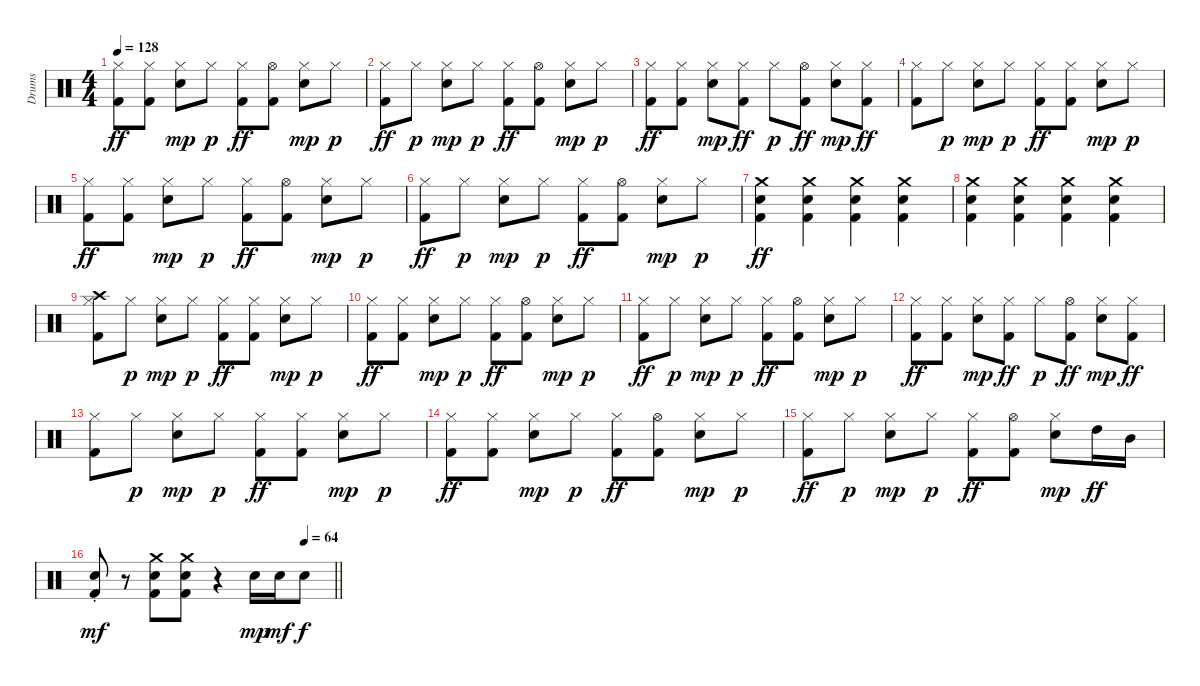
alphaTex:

\track ("Drums" "Drums") {instrument percussion}
\staff {score}
\articulation defaults
\ts (4 4)
\tempo 128
\clef neutral
\ks c
("Hi-Hat (closed)" "Kick (hit) 2").8{dy ff} ("Hi-Hat (closed)" "Kick (hit) 2").8 ("Hi-Hat (closed)" "Snare (hit) 2").8{dy mp} "Hi-Hat (closed)".8{dy p} ("Hi-Hat (closed)" "Kick (hit) 2").8{dy ff} ("Hi-Hat (open)" "Kick (hit) 2").8 ("Hi-Hat (closed)" "Snare (hit) 2").8{dy mp} "Hi-Hat (closed)".8{dy p} |
("Hi-Hat (closed)" "Kick (hit) 2").8{dy ff} "Hi-Hat (closed)".8{dy p} ("Hi-Hat (closed)" "Snare (hit) 2").8{dy mp} "Hi-Hat (closed)".8{dy p} ("Hi-Hat (closed)" "Kick (hit) 2").8{dy ff} ("Hi-Hat (open)" "Kick (hit) 2").8 ("Hi-Hat (closed)" "Snare (hit) 2").8{dy mp} "Hi-Hat (closed)".8{dy p} |
("Hi-Hat (closed)" "Kick (hit) 2").8{dy ff} ("Hi-Hat (closed)" "Kick (hit) 2").8 ("Hi-Hat (closed)" "Snare (hit) 2").8{dy mp} ("Hi-Hat (closed)" "Kick (hit) 2").8{dy ff} "Hi-Hat (closed)".8{dy p} ("Hi-Hat (open)" "Kick (hit) 2").8{dy ff} ("Hi-Hat (closed)" "Snare (hit) 2").8{dy mp} ("Hi-Hat (closed)" "Kick (hit) 2").8{dy ff} |
("Hi-Hat (closed)" "Kick (hit) 2").8 "Hi-Hat (closed)".8{dy p} ("Hi-Hat (closed)" "Snare (hit) 2").8{dy mp} "Hi-Hat (closed)".8{dy p} ("Hi-Hat (closed)" "Kick (hit) 2").8{dy ff} ("Hi-Hat (closed)" "Kick (hit) 2").8 ("Hi-Hat (closed)" "Snare (hit) 2").8{dy mp} "Hi-Hat (closed)".8{dy p} |
("Hi-Hat (closed)" "Kick (hit) 2").8{dy ff} ("Hi-Hat (closed)" "Kick (hit) 2").8 ("Hi-Hat (closed)" "Snare (hit) 2").8{dy mp} "Hi-Hat (closed)".8{dy p} ("Hi-Hat (closed)" "Kick (hit) 2").8{dy ff} ("Hi-Hat (open)" "Kick (hit) 2").8 ("Hi-Hat (closed)" "Snare (hit) 2").8{dy mp} "Hi-Hat (closed)".8{dy p} |
("Hi-Hat (closed)" "Kick (hit) 2").8{dy ff} "Hi-Hat (closed)".8{dy p} ("Hi-Hat (closed)" "Snare (hit) 2").8{dy mp} "Hi-Hat (closed)".8{dy p} ("Hi-Hat (closed)" "Kick (hit) 2").8{dy ff} ("Hi-Hat (open)" "Kick (hit) 2").8 ("Hi-Hat (closed)" "Snare (hit) 2").8{dy mp} "Hi-Hat (closed)".8{dy p} |
("Crash medium (hit)" "Snare (hit) 2" "Kick (hit) 2").4{dy ff} ("Crash medium (hit)" "Snare (hit) 2" "Kick (hit) 2").4 ("Crash medium (hit)" "Snare (hit) 2" "Kick (hit) 2").4 ("Crash medium (hit)" "Snare (hit) 2" "Kick (hit) 2").4 |
("Crash medium (hit)" "Snare (hit) 2" "Kick (hit) 2").4 ("Crash medium (hit)" "Snare (hit) 2" "Kick (hit) 2").4 ("Crash medium (hit)" "Snare (hit) 2" "Kick (hit) 2").4 ("Crash medium (hit)" "Snare (hit) 2" "Kick (hit) 2").4 |
("Crash high (hit)" "Hi-Hat (closed)" "Kick (hit) 2").8 "Hi-Hat (closed)".8{dy p} ("Hi-Hat (closed)" "Snare (hit) 2").8{dy mp} "Hi-Hat (closed)".8{dy p} ("Hi-Hat (closed)" "Kick (hit) 2").8{dy ff} ("Hi-Hat (closed)" "Kick (hit) 2").8 ("Hi-Hat (closed)" "Snare (hit) 2").8{dy mp} "Hi-Hat (closed)".8{dy p} |
("Hi-Hat (closed)" "Kick (hit) 2").8{dy ff} ("Hi-Hat (closed)" "Kick (hit) 2").8 ("Hi-Hat (closed)" "Snare (hit) 2").8{dy mp} "Hi-Hat (closed)".8{dy p} ("Hi-Hat (closed)" "Kick (hit) 2").8{dy ff} ("Hi-Hat (open)" "Kick (hit) 2").8 ("Hi-Hat (closed)" "Snare (hit) 2").8{dy mp} "Hi-Hat (closed)".8{dy p} |
("Hi-Hat (closed)" "Kick (hit) 2").8{dy ff} "Hi-Hat (closed)".8{dy p} ("Hi-Hat (closed)" "Snare (hit) 2").8{dy mp} "Hi-Hat (closed)".8{dy p} ("Hi-Hat (closed)" "Kick (hit) 2").8{dy ff} ("Hi-Hat (open)" "Kick (hit) 2").8 ("Hi-Hat (closed)" "Snare (hit) 2").8{dy mp} "Hi-Hat (closed)".8{dy p} |
("Hi-Hat (closed)" "Kick (hit) 2").8{dy ff} ("Hi-Hat (closed)" "Kick (hit) 2").8 ("Hi-Hat (closed)" "Snare (hit) 2").8{dy mp} ("Hi-Hat (closed)" "Kick (hit) 2").8{dy ff} "Hi-Hat (closed)".8{dy p} ("Hi-Hat (open)" "Kick (hit) 2").8{dy ff} ("Hi-Hat (closed)" "Snare (hit) 2").8{dy mp} ("Hi-Hat (closed)" "Kick (hit) 2").8{dy ff} |
("Hi-Hat (closed)" "Kick (hit) 2").8 "Hi-Hat (closed)".8{dy p} ("Hi-Hat (closed)" "Snare (hit) 2").8{dy mp} "Hi-Hat (closed)".8{dy p} ("Hi-Hat (closed)" "Kick (hit) 2").8{dy ff} ("Hi-Hat (closed)" "Kick (hit) 2").8 ("Hi-Hat (closed)" "Snare (hit) 2").8{dy mp} "Hi-Hat (closed)".8{dy p} |
("Hi-Hat (closed)" "Kick (hit) 2").8{dy ff} ("Hi-Hat (closed)" "Kick (hit) 2").8 ("Hi-Hat (closed)" "Snare (hit) 2").8{dy mp} "Hi-Hat (closed)".8{dy p} ("Hi-Hat (closed)" "Kick (hit) 2").8{dy ff} ("Hi-Hat (open)" "Kick (hit) 2").8 ("Hi-Hat (closed)" "Snare (hit) 2").8{dy mp} "Hi-Hat (closed)".8{dy p} |
("Hi-Hat (closed)" "Kick (hit) 2").8{dy ff} "Hi-Hat (closed)".8{dy p} ("Hi-Hat (closed)" "Snare (hit) 2").8{dy mp} "Hi-Hat (closed)".8{dy p} ("Hi-Hat (closed)" "Kick (hit) 2").8{dy ff} ("Hi-Hat (open)" "Kick (hit) 2").8 ("Hi-Hat (closed)" "Snare (hit) 2").8{dy mp} "High Tom (hit)".16{dy ff} "Mid Tom (hit)".16 |
\tempo (64 0.875)
\barLineRight lightlight
("Snare (hit) 2"{st} "Kick (hit) 2").8{dy mf} r.8 ("Crash medium (hit)" "Snare (hit) 2" "Kick (hit) 2").8 ("Crash medium (hit)" "Snare (hit) 2" "Kick (hit) 2").8 r.4 "Snare (hit) 2".16{dy mp} "Snare (hit) 2".16{dy mf} "Snare (hit) 2".8{dy f}
